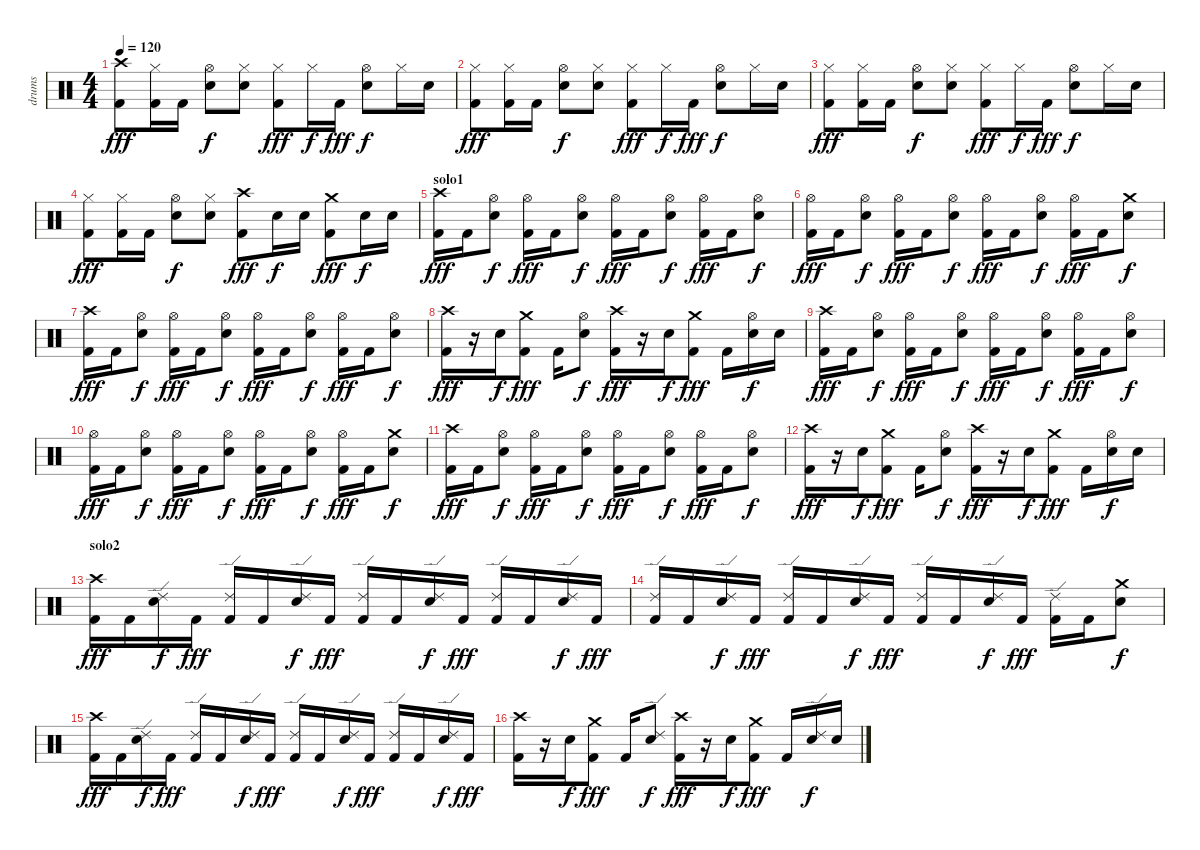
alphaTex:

\track ("drums" "drums") {instrument percussion}
\staff {score}
\articulation defaults
\ts (4 4)
\tempo 120
\clef neutral
\ks c
("Crash high (hit)" "Kick (hit) 2").8{dy fff} ("Hi-Hat (closed)" "Kick (hit) 2").16 "Kick (hit) 2".16 ("Hi-Hat (open)" "Snare (hit) 2").8{dy f} ("Hi-Hat (closed)" "Snare (hit) 2").8 ("Hi-Hat (closed)" "Kick (hit) 2").8{dy fff} "Hi-Hat (closed)".16{dy f} "Kick (hit) 2".16{dy fff} ("Hi-Hat (open)" "Snare (hit) 2").8{dy f} "Hi-Hat (closed)".16 "Snare (hit) 2".16 |
("Hi-Hat (closed)" "Kick (hit) 2").8{dy fff} ("Hi-Hat (closed)" "Kick (hit) 2").16 "Kick (hit) 2".16 ("Hi-Hat (open)" "Snare (hit) 2").8{dy f} ("Hi-Hat (closed)" "Snare (hit) 2").8 ("Hi-Hat (closed)" "Kick (hit) 2").8{dy fff} "Hi-Hat (closed)".16{dy f} "Kick (hit) 2".16{dy fff} ("Hi-Hat (open)" "Snare (hit) 2").8{dy f} "Hi-Hat (closed)".16 "Snare (hit) 2".16 |
("Hi-Hat (closed)" "Kick (hit) 2").8{dy fff} ("Hi-Hat (closed)" "Kick (hit) 2").16 "Kick (hit) 2".16 ("Hi-Hat (open)" "Snare (hit) 2").8{dy f} ("Hi-Hat (closed)" "Snare (hit) 2").8 ("Hi-Hat (closed)" "Kick (hit) 2").8{dy fff} "Hi-Hat (closed)".16{dy f} "Kick (hit) 2".16{dy fff} ("Hi-Hat (open)" "Snare (hit) 2").8{dy f} "Hi-Hat (closed)".16 "Snare (hit) 2".16 |
("Hi-Hat (closed)" "Kick (hit) 2").8{dy fff} ("Hi-Hat (closed)" "Kick (hit) 2").16 "Kick (hit) 2".16 ("Hi-Hat (open)" "Snare (hit) 2").8{dy f} ("Hi-Hat (closed)" "Snare (hit) 2").8 ("Crash high (hit)" "Kick (hit) 2").8{dy fff} "Snare (hit) 2".16{dy f} "Snare (hit) 2".16 ("Crash medium (hit)" "Kick (hit) 2").8{dy fff} "Snare (hit) 2".16{dy f} "Snare (hit) 2".16 |
\section ("" "solo1")
("Crash high (hit)" "Kick (hit) 2").16{dy fff} "Kick (hit) 2".16 ("Hi-Hat (open)" "Snare (hit) 2").8{dy f} ("Hi-Hat (open)" "Kick (hit) 2").16{dy fff} "Kick (hit) 2".16 ("Hi-Hat (open)" "Snare (hit) 2").8{dy f} ("Hi-Hat (open)" "Kick (hit) 2").16{dy fff} "Kick (hit) 2".16 ("Hi-Hat (open)" "Snare (hit) 2").8{dy f} ("Hi-Hat (open)" "Kick (hit) 2").16{dy fff} "Kick (hit) 2".16 ("Hi-Hat (open)" "Snare (hit) 2").8{dy f} |
("Hi-Hat (open)" "Kick (hit) 2").16{dy fff} "Kick (hit) 2".16 ("Hi-Hat (open)" "Snare (hit) 2").8{dy f} ("Hi-Hat (open)" "Kick (hit) 2").16{dy fff} "Kick (hit) 2".16 ("Hi-Hat (open)" "Snare (hit) 2").8{dy f} ("Hi-Hat (open)" "Kick (hit) 2").16{dy fff} "Kick (hit) 2".16 ("Hi-Hat (open)" "Snare (hit) 2").8{dy f} ("Hi-Hat (open)" "Kick (hit) 2").16{dy fff} "Kick (hit) 2".16 ("Crash medium (hit)" "Snare (hit) 2").8{dy f} |
("Crash high (hit)" "Kick (hit) 2").16{dy fff} "Kick (hit) 2".16 ("Hi-Hat (open)" "Snare (hit) 2").8{dy f} ("Hi-Hat (open)" "Kick (hit) 2").16{dy fff} "Kick (hit) 2".16 ("Hi-Hat (open)" "Snare (hit) 2").8{dy f} ("Hi-Hat (open)" "Kick (hit) 2").16{dy fff} "Kick (hit) 2".16 ("Hi-Hat (open)" "Snare (hit) 2").8{dy f} ("Hi-Hat (open)" "Kick (hit) 2").16{dy fff} "Kick (hit) 2".16 ("Hi-Hat (open)" "Snare (hit) 2").8{dy f} |
("Crash high (hit)" "Kick (hit) 2").16{dy fff} r.16 "Snare (hit) 2".16{dy f} ("Crash medium (hit)" "Kick (hit) 2").8{dy fff} "Kick (hit) 2".16 ("Hi-Hat (open)" "Snare (hit) 2").8{dy f} ("Crash high (hit)" "Kick (hit) 2").16{dy fff} r.16 "Snare (hit) 2".16{dy f} ("Crash medium (hit)" "Kick (hit) 2").8{dy fff} "Kick (hit) 2".16 ("Hi-Hat (open)" "Snare (hit) 2").16{dy f} "Snare (hit) 2".16 |
("Crash high (hit)" "Kick (hit) 2").16{dy fff} "Kick (hit) 2".16 ("Hi-Hat (open)" "Snare (hit) 2").8{dy f} ("Hi-Hat (open)" "Kick (hit) 2").16{dy fff} "Kick (hit) 2".16 ("Hi-Hat (open)" "Snare (hit) 2").8{dy f} ("Hi-Hat (open)" "Kick (hit) 2").16{dy fff} "Kick (hit) 2".16 ("Hi-Hat (open)" "Snare (hit) 2").8{dy f} ("Hi-Hat (open)" "Kick (hit) 2").16{dy fff} "Kick (hit) 2".16 ("Hi-Hat (open)" "Snare (hit) 2").8{dy f} |
("Hi-Hat (open)" "Kick (hit) 2").16{dy fff} "Kick (hit) 2".16 ("Hi-Hat (open)" "Snare (hit) 2").8{dy f} ("Hi-Hat (open)" "Kick (hit) 2").16{dy fff} "Kick (hit) 2".16 ("Hi-Hat (open)" "Snare (hit) 2").8{dy f} ("Hi-Hat (open)" "Kick (hit) 2").16{dy fff} "Kick (hit) 2".16 ("Hi-Hat (open)" "Snare (hit) 2").8{dy f} ("Hi-Hat (open)" "Kick (hit) 2").16{dy fff} "Kick (hit) 2".16 ("Crash medium (hit)" "Snare (hit) 2").8{dy f} |
("Crash high (hit)" "Kick (hit) 2").16{dy fff} "Kick (hit) 2".16 ("Hi-Hat (open)" "Snare (hit) 2").8{dy f} ("Hi-Hat (open)" "Kick (hit) 2").16{dy fff} "Kick (hit) 2".16 ("Hi-Hat (open)" "Snare (hit) 2").8{dy f} ("Hi-Hat (open)" "Kick (hit) 2").16{dy fff} "Kick (hit) 2".16 ("Hi-Hat (open)" "Snare (hit) 2").8{dy f} ("Hi-Hat (open)" "Kick (hit) 2").16{dy fff} "Kick (hit) 2".16 ("Hi-Hat (open)" "Snare (hit) 2").8{dy f} |
("Crash high (hit)" "Kick (hit) 2").16{dy fff} r.16 "Snare (hit) 2".16{dy f} ("Crash medium (hit)" "Kick (hit) 2").8{dy fff} "Kick (hit) 2".16 ("Hi-Hat (open)" "Snare (hit) 2").8{dy f} ("Crash high (hit)" "Kick (hit) 2").16{dy fff} r.16 "Snare (hit) 2".16{dy f} ("Crash medium (hit)" "Kick (hit) 2").8{dy fff} "Kick (hit) 2".16 ("Hi-Hat (open)" "Snare (hit) 2").16{dy f} "Snare (hit) 2".16 |
\section ("" "solo2")
("Crash high (hit)" "Kick (hit) 2").16{dy fff} "Kick (hit) 2".16 ("Ride (edge) 2" "Snare (hit) 2").16{dy f} "Kick (hit) 2".16{dy fff} ("Ride (edge) 2" "Kick (hit) 2").16 "Kick (hit) 2".16 ("Ride (edge) 2" "Snare (hit) 2").16{dy f} "Kick (hit) 2".16{dy fff} ("Ride (edge) 2" "Kick (hit) 2").16 "Kick (hit) 2".16 ("Ride (edge) 2" "Snare (hit) 2").16{dy f} "Kick (hit) 2".16{dy fff} ("Ride (edge) 2" "Kick (hit) 2").16 "Kick (hit) 2".16 ("Ride (edge) 2" "Snare (hit) 2").16{dy f} "Kick (hit) 2".16{dy fff} |
("Ride (edge) 2" "Kick (hit) 2").16 "Kick (hit) 2".16 ("Ride (edge) 2" "Snare (hit) 2").16{dy f} "Kick (hit) 2".16{dy fff} ("Ride (edge) 2" "Kick (hit) 2").16 "Kick (hit) 2".16 ("Ride (edge) 2" "Snare (hit) 2").16{dy f} "Kick (hit) 2".16{dy fff} ("Ride (edge) 2" "Kick (hit) 2").16 "Kick (hit) 2".16 ("Ride (edge) 2" "Snare (hit) 2").16{dy f} "Kick (hit) 2".16{dy fff} ("Ride (edge) 2" "Kick (hit) 2").16 "Kick (hit) 2".16 ("Crash medium (hit)" "Snare (hit) 2").8{dy f} |
("Crash high (hit)" "Kick (hit) 2").16{dy fff} "Kick (hit) 2".16 ("Ride (edge) 2" "Snare (hit) 2").16{dy f} "Kick (hit) 2".16{dy fff} ("Ride (edge) 2" "Kick (hit) 2").16 "Kick (hit) 2".16 ("Ride (edge) 2" "Snare (hit) 2").16{dy f} "Kick (hit) 2".16{dy fff} ("Ride (edge) 2" "Kick (hit) 2").16 "Kick (hit) 2".16 ("Ride (edge) 2" "Snare (hit) 2").16{dy f} "Kick (hit) 2".16{dy fff} ("Ride (edge) 2" "Kick (hit) 2").16 "Kick (hit) 2".16 ("Ride (edge) 2" "Snare (hit) 2").16{dy f} "Kick (hit) 2".16{dy fff} |
("Crash high (hit)" "Kick (hit) 2").16 r.16 "Snare (hit) 2".16{dy f} ("Crash medium (hit)" "Kick (hit) 2").8{dy fff} "Kick (hit) 2".16 ("Ride (edge) 2" "Snare (hit) 2").8{dy f} ("Crash high (hit)" "Kick (hit) 2").16{dy fff} r.16 "Snare (hit) 2".16{dy f} ("Crash medium (hit)" "Kick (hit) 2").8{dy fff} "Kick (hit) 2".16 ("Ride (edge) 2" "Snare (hit) 2").16{dy f} "Snare (hit) 2".16
